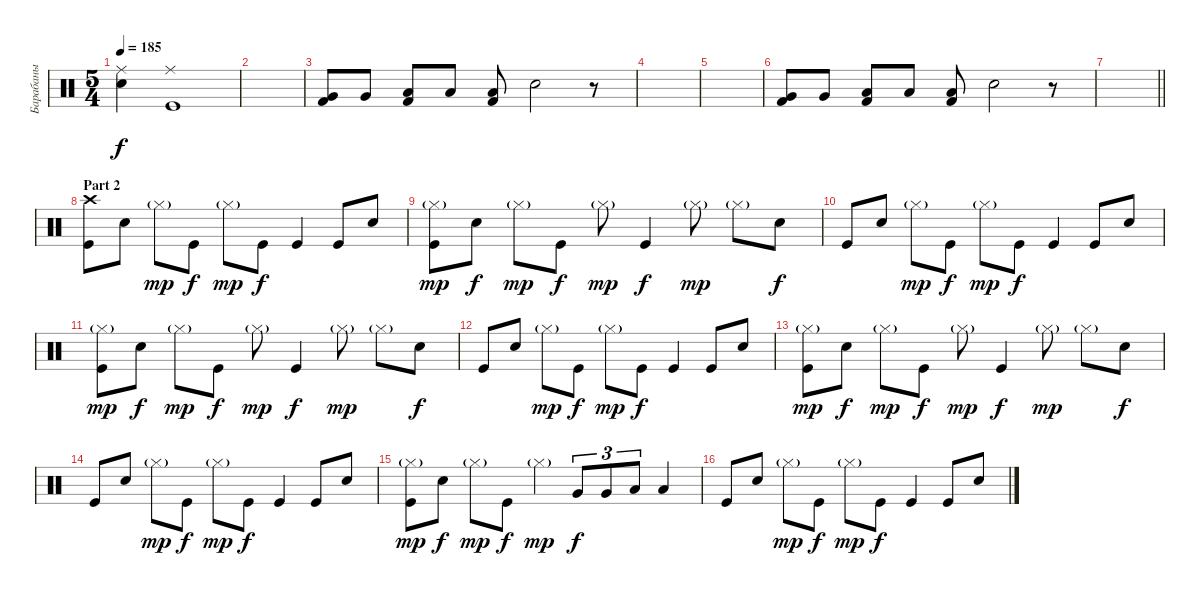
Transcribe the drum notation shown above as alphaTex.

\track ("Барабаны" "Барабаны") {instrument percussion}
\staff {score}
\articulation defaults
\ts (5 4)
\tempo 185
\clef neutral
\ks c
("Ride (middle)" "Electric Snare (hit)").4{dy f} ("Ride (middle)" "Kick (hit)").1 |
|
("Very Low Tom (hit)" "Kick (hit) 2").8 "Very Low Tom (hit)".8 ("Low Floor Tom (hit)" "Kick (hit) 2").8 "Low Floor Tom (hit)".8 ("Low Floor Tom (hit)" "Kick (hit) 2").8 "Electric Snare (hit)".2 r.8 |
|
|
("Very Low Tom (hit)" "Kick (hit) 2").8 "Very Low Tom (hit)".8 ("Low Floor Tom (hit)" "Kick (hit) 2").8 "Low Floor Tom (hit)".8 ("Low Floor Tom (hit)" "Kick (hit) 2").8 "Electric Snare (hit)".2 r.8 |
\barLineRight lightlight
|
\section ("" "Part 2")
("Crash high (hit)" "Kick (hit)").8 "Electric Snare (hit)".8 "Hi-Hat (closed)"{g}.8{dy mp} "Kick (hit)".8{dy f} "Hi-Hat (closed)"{g}.8{dy mp} "Kick (hit)".8{dy f} "Kick (hit)".4 "Kick (hit)".8 "Electric Snare (hit)".8 |
("Hi-Hat (closed)"{g} "Kick (hit)").8{dy mp} "Electric Snare (hit)".8{dy f} "Hi-Hat (closed)"{g}.8{dy mp} "Kick (hit)".8{dy f} "Hi-Hat (closed)"{g}.8{dy mp} "Kick (hit)".4{dy f} "Hi-Hat (closed)"{g}.8{dy mp} "Hi-Hat (closed)"{g}.8 "Electric Snare (hit)".8{dy f} |
"Kick (hit)".8 "Electric Snare (hit)".8 "Hi-Hat (closed)"{g}.8{dy mp} "Kick (hit)".8{dy f} "Hi-Hat (closed)"{g}.8{dy mp} "Kick (hit)".8{dy f} "Kick (hit)".4 "Kick (hit)".8 "Electric Snare (hit)".8 |
("Hi-Hat (closed)"{g} "Kick (hit)").8{dy mp} "Electric Snare (hit)".8{dy f} "Hi-Hat (closed)"{g}.8{dy mp} "Kick (hit)".8{dy f} "Hi-Hat (closed)"{g}.8{dy mp} "Kick (hit)".4{dy f} "Hi-Hat (closed)"{g}.8{dy mp} "Hi-Hat (closed)"{g}.8 "Electric Snare (hit)".8{dy f} |
"Kick (hit)".8 "Electric Snare (hit)".8 "Hi-Hat (closed)"{g}.8{dy mp} "Kick (hit)".8{dy f} "Hi-Hat (closed)"{g}.8{dy mp} "Kick (hit)".8{dy f} "Kick (hit)".4 "Kick (hit)".8 "Electric Snare (hit)".8 |
("Hi-Hat (closed)"{g} "Kick (hit)").8{dy mp} "Electric Snare (hit)".8{dy f} "Hi-Hat (closed)"{g}.8{dy mp} "Kick (hit)".8{dy f} "Hi-Hat (closed)"{g}.8{dy mp} "Kick (hit)".4{dy f} "Hi-Hat (closed)"{g}.8{dy mp} "Hi-Hat (closed)"{g}.8 "Electric Snare (hit)".8{dy f} |
"Kick (hit)".8 "Electric Snare (hit)".8 "Hi-Hat (closed)"{g}.8{dy mp} "Kick (hit)".8{dy f} "Hi-Hat (closed)"{g}.8{dy mp} "Kick (hit)".8{dy f} "Kick (hit)".4 "Kick (hit)".8 "Electric Snare (hit)".8 |
("Hi-Hat (closed)"{g} "Kick (hit)").8{dy mp} "Electric Snare (hit)".8{dy f} "Hi-Hat (closed)"{g}.8{dy mp} "Kick (hit)".8{dy f} "Hi-Hat (closed)"{g}.4{dy mp} "Very Low Tom (hit)".8{tu (3 2) dy f} "Very Low Tom (hit)".8{tu (3 2)} "Low Floor Tom (hit)".8{tu (3 2)} "Low Floor Tom (hit)".4 |
"Kick (hit)".8 "Electric Snare (hit)".8 "Hi-Hat (closed)"{g}.8{dy mp} "Kick (hit)".8{dy f} "Hi-Hat (closed)"{g}.8{dy mp} "Kick (hit)".8{dy f} "Kick (hit)".4 "Kick (hit)".8 "Electric Snare (hit)".8
